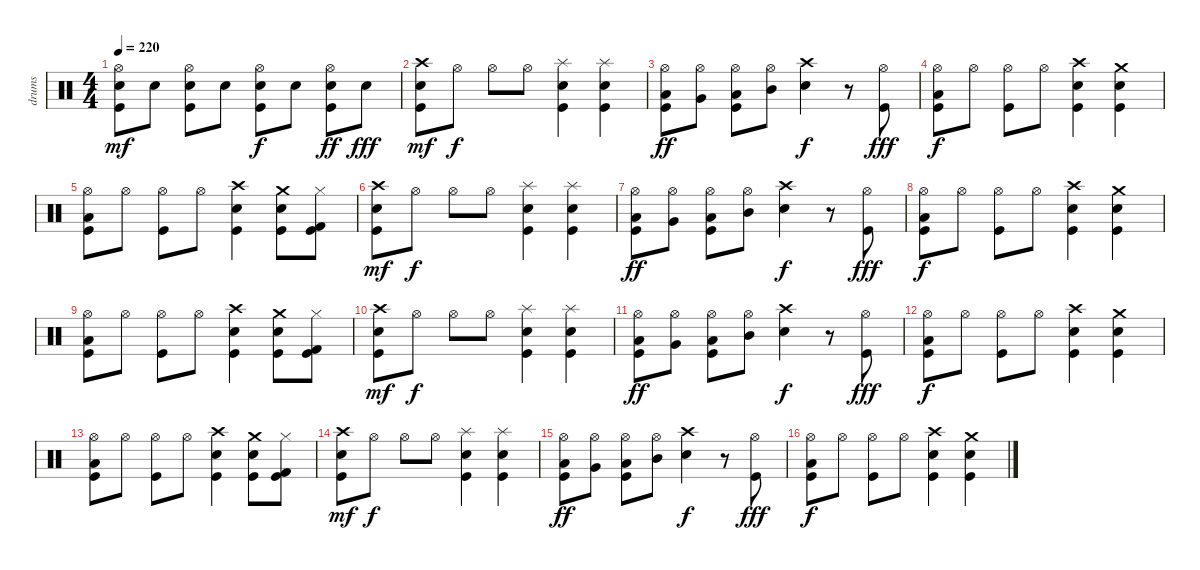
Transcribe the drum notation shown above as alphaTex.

\track ("drums" "drums") {instrument percussion}
\staff {score}
\articulation defaults
\ts (4 4)
\tempo 220
\clef neutral
\ks c
("Hi-Hat (open)" "Electric Snare (hit)" "Kick (hit)").8{dy mf} "Electric Snare (hit)".8 ("Hi-Hat (open)" "Electric Snare (hit)" "Kick (hit)").8 "Electric Snare (hit)".8 ("Hi-Hat (open)" "Electric Snare (hit)" "Kick (hit)").8{dy f} "Electric Snare (hit)".8 ("Hi-Hat (open)" "Electric Snare (hit)" "Kick (hit)").8{dy ff} "Electric Snare (hit)".8{dy fff} |
("Electric Snare (hit)" "Crash high (hit)" "Kick (hit)").8{dy mf} "Hi-Hat (open)".8{dy f} "Hi-Hat (open)".8 "Hi-Hat (open)".8 ("Electric Snare (hit)" "Splash (hit)" "Kick (hit)").4 ("Electric Snare (hit)" "Splash (hit)" "Kick (hit)").4 |
("Hi-Hat (open)" "Low Floor Tom (hit)" "Kick (hit)").8{dy ff} ("Hi-Hat (open)" "Very Low Tom (hit)").8 ("Hi-Hat (open)" "Low Tom (hit)" "Kick (hit)").8 ("Hi-Hat (open)" "Mid Tom (hit)").8 ("Crash high (hit)" "Electric Snare (hit)").4{dy f} r.8 ("Hi-Hat (open)" "Kick (hit)").8{dy fff} |
("Low Tom (hit)" "Kick (hit)" "Hi-Hat (open)").8{dy f} "Hi-Hat (open)".8 ("Kick (hit)" "Hi-Hat (open)").8 "Hi-Hat (open)".8 ("Crash high (hit)" "Electric Snare (hit)" "Kick (hit)").4 ("Crash medium (hit)" "Electric Snare (hit)" "Kick (hit)").4 |
("Low Tom (hit)" "Kick (hit)" "Hi-Hat (open)").8 "Hi-Hat (open)".8 ("Kick (hit)" "Hi-Hat (open)").8 "Hi-Hat (open)".8 ("Crash high (hit)" "Electric Snare (hit)" "Kick (hit)").4 ("Crash medium (hit)" "Electric Snare (hit)" "Kick (hit)").8 ("Hi-Hat (closed)" "Kick (hit) 2" "Kick (hit)").8 |
("Electric Snare (hit)" "Crash high (hit)" "Kick (hit)").8{dy mf} "Hi-Hat (open)".8{dy f} "Hi-Hat (open)".8 "Hi-Hat (open)".8 ("Electric Snare (hit)" "Splash (hit)" "Kick (hit)").4 ("Electric Snare (hit)" "Splash (hit)" "Kick (hit)").4 |
("Hi-Hat (open)" "Low Floor Tom (hit)" "Kick (hit)").8{dy ff} ("Hi-Hat (open)" "Very Low Tom (hit)").8 ("Hi-Hat (open)" "Low Tom (hit)" "Kick (hit)").8 ("Hi-Hat (open)" "Mid Tom (hit)").8 ("Crash high (hit)" "Electric Snare (hit)").4{dy f} r.8 ("Hi-Hat (open)" "Kick (hit)").8{dy fff} |
("Low Tom (hit)" "Kick (hit)" "Hi-Hat (open)").8{dy f} "Hi-Hat (open)".8 ("Kick (hit)" "Hi-Hat (open)").8 "Hi-Hat (open)".8 ("Crash high (hit)" "Electric Snare (hit)" "Kick (hit)").4 ("Crash medium (hit)" "Electric Snare (hit)" "Kick (hit)").4 |
("Low Tom (hit)" "Kick (hit)" "Hi-Hat (open)").8 "Hi-Hat (open)".8 ("Kick (hit)" "Hi-Hat (open)").8 "Hi-Hat (open)".8 ("Crash high (hit)" "Electric Snare (hit)" "Kick (hit)").4 ("Crash medium (hit)" "Electric Snare (hit)" "Kick (hit)").8 ("Hi-Hat (closed)" "Kick (hit) 2" "Kick (hit)").8 |
("Electric Snare (hit)" "Crash high (hit)" "Kick (hit)").8{dy mf} "Hi-Hat (open)".8{dy f} "Hi-Hat (open)".8 "Hi-Hat (open)".8 ("Electric Snare (hit)" "Splash (hit)" "Kick (hit)").4 ("Electric Snare (hit)" "Splash (hit)" "Kick (hit)").4 |
("Hi-Hat (open)" "Low Floor Tom (hit)" "Kick (hit)").8{dy ff} ("Hi-Hat (open)" "Very Low Tom (hit)").8 ("Hi-Hat (open)" "Low Tom (hit)" "Kick (hit)").8 ("Hi-Hat (open)" "Mid Tom (hit)").8 ("Crash high (hit)" "Electric Snare (hit)").4{dy f} r.8 ("Hi-Hat (open)" "Kick (hit)").8{dy fff} |
("Low Tom (hit)" "Kick (hit)" "Hi-Hat (open)").8{dy f} "Hi-Hat (open)".8 ("Kick (hit)" "Hi-Hat (open)").8 "Hi-Hat (open)".8 ("Crash high (hit)" "Electric Snare (hit)" "Kick (hit)").4 ("Crash medium (hit)" "Electric Snare (hit)" "Kick (hit)").4 |
("Low Tom (hit)" "Kick (hit)" "Hi-Hat (open)").8 "Hi-Hat (open)".8 ("Kick (hit)" "Hi-Hat (open)").8 "Hi-Hat (open)".8 ("Crash high (hit)" "Electric Snare (hit)" "Kick (hit)").4 ("Crash medium (hit)" "Electric Snare (hit)" "Kick (hit)").8 ("Hi-Hat (closed)" "Kick (hit) 2" "Kick (hit)").8 |
("Electric Snare (hit)" "Crash high (hit)" "Kick (hit)").8{dy mf} "Hi-Hat (open)".8{dy f} "Hi-Hat (open)".8 "Hi-Hat (open)".8 ("Electric Snare (hit)" "Splash (hit)" "Kick (hit)").4 ("Electric Snare (hit)" "Splash (hit)" "Kick (hit)").4 |
("Hi-Hat (open)" "Low Floor Tom (hit)" "Kick (hit)").8{dy ff} ("Hi-Hat (open)" "Very Low Tom (hit)").8 ("Hi-Hat (open)" "Low Tom (hit)" "Kick (hit)").8 ("Hi-Hat (open)" "Mid Tom (hit)").8 ("Crash high (hit)" "Electric Snare (hit)").4{dy f} r.8 ("Hi-Hat (open)" "Kick (hit)").8{dy fff} |
("Low Tom (hit)" "Kick (hit)" "Hi-Hat (open)").8{dy f} "Hi-Hat (open)".8 ("Kick (hit)" "Hi-Hat (open)").8 "Hi-Hat (open)".8 ("Crash high (hit)" "Electric Snare (hit)" "Kick (hit)").4 ("Crash medium (hit)" "Electric Snare (hit)" "Kick (hit)").4
